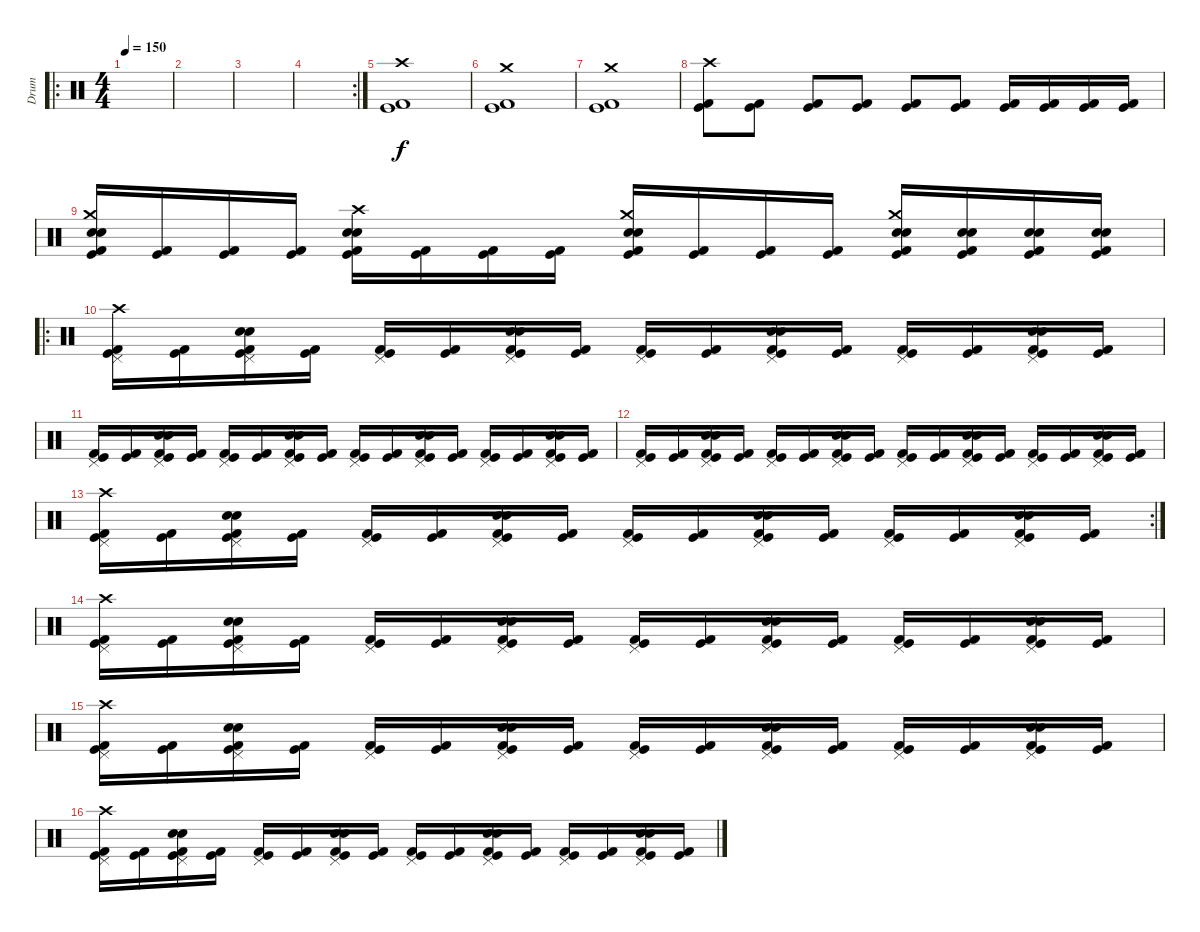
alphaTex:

\track ("Drum" "Drum") {instrument percussion}
\staff {score}
\articulation defaults
\ro
\ts (4 4)
\tempo 150
\clef neutral
\ks c
|
|
|
\rc 2
|
("Crash high (hit)" "Kick (hit) 2" "Kick (hit)").1 |
("Crash medium (hit)" "Kick (hit) 2" "Kick (hit)").1 |
("Crash medium (hit)" "Kick (hit) 2" "Kick (hit)").1 |
("Crash high (hit)" "Kick (hit)" "Kick (hit) 2").8 ("Kick (hit)" "Kick (hit) 2").8 ("Kick (hit)" "Kick (hit) 2").8 ("Kick (hit)" "Kick (hit) 2").8 ("Kick (hit)" "Kick (hit) 2").8 ("Kick (hit)" "Kick (hit) 2").8 ("Kick (hit)" "Kick (hit) 2").16 ("Kick (hit)" "Kick (hit) 2").16 ("Kick (hit)" "Kick (hit) 2").16 ("Kick (hit)" "Kick (hit) 2").16 |
("Crash medium (hit)" "Electric Snare (hit)" "Snare (hit) 2" "Kick (hit) 2" "Kick (hit)").16 ("Kick (hit) 2" "Kick (hit)").16 ("Kick (hit) 2" "Kick (hit)").16 ("Kick (hit) 2" "Kick (hit)").16 ("Crash high (hit)" "Electric Snare (hit)" "Snare (hit) 2" "Kick (hit) 2" "Kick (hit)").16 ("Kick (hit) 2" "Kick (hit)").16 ("Kick (hit) 2" "Kick (hit)").16 ("Kick (hit) 2" "Kick (hit)").16 ("Crash medium (hit)" "Electric Snare (hit)" "Snare (hit) 2" "Kick (hit) 2" "Kick (hit)").16 ("Kick (hit) 2" "Kick (hit)").16 ("Kick (hit) 2" "Kick (hit)").16 ("Kick (hit) 2" "Kick (hit)").16 ("Crash medium (hit)" "Electric Snare (hit)" "Snare (hit) 2" "Kick (hit) 2" "Kick (hit)").16 ("Electric Snare (hit)" "Snare (hit) 2" "Kick (hit) 2" "Kick (hit)").16 ("Electric Snare (hit)" "Snare (hit) 2" "Kick (hit) 2" "Kick (hit)").16 ("Electric Snare (hit)" "Snare (hit) 2" "Kick (hit) 2" "Kick (hit)").16 |
\ro
("Crash high (hit)" "Pedal Hi-Hat (hit)" "Kick (hit) 2" "Kick (hit)").16 ("Kick (hit) 2" "Kick (hit)").16 ("Pedal Hi-Hat (hit)" "Electric Snare (hit)" "Snare (hit) 2" "Kick (hit) 2" "Kick (hit)").16 ("Kick (hit) 2" "Kick (hit)").16 ("Pedal Hi-Hat (hit)" "Kick (hit) 2" "Kick (hit)").16 ("Kick (hit) 2" "Kick (hit)").16 ("Pedal Hi-Hat (hit)" "Electric Snare (hit)" "Snare (hit) 2" "Kick (hit) 2" "Kick (hit)").16 ("Kick (hit) 2" "Kick (hit)").16 ("Pedal Hi-Hat (hit)" "Kick (hit) 2" "Kick (hit)").16 ("Kick (hit) 2" "Kick (hit)").16 ("Pedal Hi-Hat (hit)" "Electric Snare (hit)" "Snare (hit) 2" "Kick (hit) 2" "Kick (hit)").16 ("Kick (hit) 2" "Kick (hit)").16 ("Pedal Hi-Hat (hit)" "Kick (hit) 2" "Kick (hit)").16 ("Kick (hit) 2" "Kick (hit)").16 ("Pedal Hi-Hat (hit)" "Electric Snare (hit)" "Snare (hit) 2" "Kick (hit) 2" "Kick (hit)").16 ("Kick (hit) 2" "Kick (hit)").16 |
("Pedal Hi-Hat (hit)" "Kick (hit) 2" "Kick (hit)").16 ("Kick (hit) 2" "Kick (hit)").16 ("Pedal Hi-Hat (hit)" "Electric Snare (hit)" "Snare (hit) 2" "Kick (hit) 2" "Kick (hit)").16 ("Kick (hit) 2" "Kick (hit)").16 ("Pedal Hi-Hat (hit)" "Kick (hit) 2" "Kick (hit)").16 ("Kick (hit) 2" "Kick (hit)").16 ("Pedal Hi-Hat (hit)" "Electric Snare (hit)" "Snare (hit) 2" "Kick (hit) 2" "Kick (hit)").16 ("Kick (hit) 2" "Kick (hit)").16 ("Pedal Hi-Hat (hit)" "Kick (hit) 2" "Kick (hit)").16 ("Kick (hit) 2" "Kick (hit)").16 ("Pedal Hi-Hat (hit)" "Electric Snare (hit)" "Snare (hit) 2" "Kick (hit) 2" "Kick (hit)").16 ("Kick (hit) 2" "Kick (hit)").16 ("Pedal Hi-Hat (hit)" "Kick (hit) 2" "Kick (hit)").16 ("Kick (hit) 2" "Kick (hit)").16 ("Pedal Hi-Hat (hit)" "Electric Snare (hit)" "Snare (hit) 2" "Kick (hit) 2" "Kick (hit)").16 ("Kick (hit) 2" "Kick (hit)").16 |
("Pedal Hi-Hat (hit)" "Kick (hit) 2" "Kick (hit)").16 ("Kick (hit) 2" "Kick (hit)").16 ("Pedal Hi-Hat (hit)" "Electric Snare (hit)" "Snare (hit) 2" "Kick (hit) 2" "Kick (hit)").16 ("Kick (hit) 2" "Kick (hit)").16 ("Pedal Hi-Hat (hit)" "Kick (hit) 2" "Kick (hit)").16 ("Kick (hit) 2" "Kick (hit)").16 ("Pedal Hi-Hat (hit)" "Electric Snare (hit)" "Snare (hit) 2" "Kick (hit) 2" "Kick (hit)").16 ("Kick (hit) 2" "Kick (hit)").16 ("Pedal Hi-Hat (hit)" "Kick (hit) 2" "Kick (hit)").16 ("Kick (hit) 2" "Kick (hit)").16 ("Pedal Hi-Hat (hit)" "Electric Snare (hit)" "Snare (hit) 2" "Kick (hit) 2" "Kick (hit)").16 ("Kick (hit) 2" "Kick (hit)").16 ("Pedal Hi-Hat (hit)" "Kick (hit) 2" "Kick (hit)").16 ("Kick (hit) 2" "Kick (hit)").16 ("Pedal Hi-Hat (hit)" "Electric Snare (hit)" "Snare (hit) 2" "Kick (hit) 2" "Kick (hit)").16 ("Kick (hit) 2" "Kick (hit)").16 |
\rc 2
("Crash high (hit)" "Pedal Hi-Hat (hit)" "Kick (hit) 2" "Kick (hit)").16 ("Kick (hit) 2" "Kick (hit)").16 ("Pedal Hi-Hat (hit)" "Electric Snare (hit)" "Snare (hit) 2" "Kick (hit) 2" "Kick (hit)").16 ("Kick (hit) 2" "Kick (hit)").16 ("Pedal Hi-Hat (hit)" "Kick (hit) 2" "Kick (hit)").16 ("Kick (hit) 2" "Kick (hit)").16 ("Pedal Hi-Hat (hit)" "Electric Snare (hit)" "Snare (hit) 2" "Kick (hit) 2" "Kick (hit)").16 ("Kick (hit) 2" "Kick (hit)").16 ("Pedal Hi-Hat (hit)" "Kick (hit) 2" "Kick (hit)").16 ("Kick (hit) 2" "Kick (hit)").16 ("Pedal Hi-Hat (hit)" "Electric Snare (hit)" "Snare (hit) 2" "Kick (hit) 2" "Kick (hit)").16 ("Kick (hit) 2" "Kick (hit)").16 ("Pedal Hi-Hat (hit)" "Kick (hit) 2" "Kick (hit)").16 ("Kick (hit) 2" "Kick (hit)").16 ("Pedal Hi-Hat (hit)" "Electric Snare (hit)" "Snare (hit) 2" "Kick (hit) 2" "Kick (hit)").16 ("Kick (hit) 2" "Kick (hit)").16 |
("Crash high (hit)" "Pedal Hi-Hat (hit)" "Kick (hit) 2" "Kick (hit)").16 ("Kick (hit) 2" "Kick (hit)").16 ("Pedal Hi-Hat (hit)" "Electric Snare (hit)" "Snare (hit) 2" "Kick (hit) 2" "Kick (hit)").16 ("Kick (hit) 2" "Kick (hit)").16 ("Pedal Hi-Hat (hit)" "Kick (hit) 2" "Kick (hit)").16 ("Kick (hit) 2" "Kick (hit)").16 ("Pedal Hi-Hat (hit)" "Electric Snare (hit)" "Snare (hit) 2" "Kick (hit) 2" "Kick (hit)").16 ("Kick (hit) 2" "Kick (hit)").16 ("Pedal Hi-Hat (hit)" "Kick (hit) 2" "Kick (hit)").16 ("Kick (hit) 2" "Kick (hit)").16 ("Pedal Hi-Hat (hit)" "Electric Snare (hit)" "Snare (hit) 2" "Kick (hit) 2" "Kick (hit)").16 ("Kick (hit) 2" "Kick (hit)").16 ("Pedal Hi-Hat (hit)" "Kick (hit) 2" "Kick (hit)").16 ("Kick (hit) 2" "Kick (hit)").16 ("Pedal Hi-Hat (hit)" "Electric Snare (hit)" "Snare (hit) 2" "Kick (hit) 2" "Kick (hit)").16 ("Kick (hit) 2" "Kick (hit)").16 |
("Crash high (hit)" "Pedal Hi-Hat (hit)" "Kick (hit) 2" "Kick (hit)").16 ("Kick (hit) 2" "Kick (hit)").16 ("Pedal Hi-Hat (hit)" "Electric Snare (hit)" "Snare (hit) 2" "Kick (hit) 2" "Kick (hit)").16 ("Kick (hit) 2" "Kick (hit)").16 ("Pedal Hi-Hat (hit)" "Kick (hit) 2" "Kick (hit)").16 ("Kick (hit) 2" "Kick (hit)").16 ("Pedal Hi-Hat (hit)" "Electric Snare (hit)" "Snare (hit) 2" "Kick (hit) 2" "Kick (hit)").16 ("Kick (hit) 2" "Kick (hit)").16 ("Pedal Hi-Hat (hit)" "Kick (hit) 2" "Kick (hit)").16 ("Kick (hit) 2" "Kick (hit)").16 ("Pedal Hi-Hat (hit)" "Electric Snare (hit)" "Snare (hit) 2" "Kick (hit) 2" "Kick (hit)").16 ("Kick (hit) 2" "Kick (hit)").16 ("Pedal Hi-Hat (hit)" "Kick (hit) 2" "Kick (hit)").16 ("Kick (hit) 2" "Kick (hit)").16 ("Pedal Hi-Hat (hit)" "Electric Snare (hit)" "Snare (hit) 2" "Kick (hit) 2" "Kick (hit)").16 ("Kick (hit) 2" "Kick (hit)").16 |
("Crash high (hit)" "Pedal Hi-Hat (hit)" "Kick (hit) 2" "Kick (hit)").16 ("Kick (hit) 2" "Kick (hit)").16 ("Pedal Hi-Hat (hit)" "Electric Snare (hit)" "Snare (hit) 2" "Kick (hit) 2" "Kick (hit)").16 ("Kick (hit) 2" "Kick (hit)").16 ("Pedal Hi-Hat (hit)" "Kick (hit) 2" "Kick (hit)").16 ("Kick (hit) 2" "Kick (hit)").16 ("Pedal Hi-Hat (hit)" "Electric Snare (hit)" "Snare (hit) 2" "Kick (hit) 2" "Kick (hit)").16 ("Kick (hit) 2" "Kick (hit)").16 ("Pedal Hi-Hat (hit)" "Kick (hit) 2" "Kick (hit)").16 ("Kick (hit) 2" "Kick (hit)").16 ("Pedal Hi-Hat (hit)" "Electric Snare (hit)" "Snare (hit) 2" "Kick (hit) 2" "Kick (hit)").16 ("Kick (hit) 2" "Kick (hit)").16 ("Pedal Hi-Hat (hit)" "Kick (hit) 2" "Kick (hit)").16 ("Kick (hit) 2" "Kick (hit)").16 ("Pedal Hi-Hat (hit)" "Electric Snare (hit)" "Snare (hit) 2" "Kick (hit) 2" "Kick (hit)").16 ("Kick (hit) 2" "Kick (hit)").16
